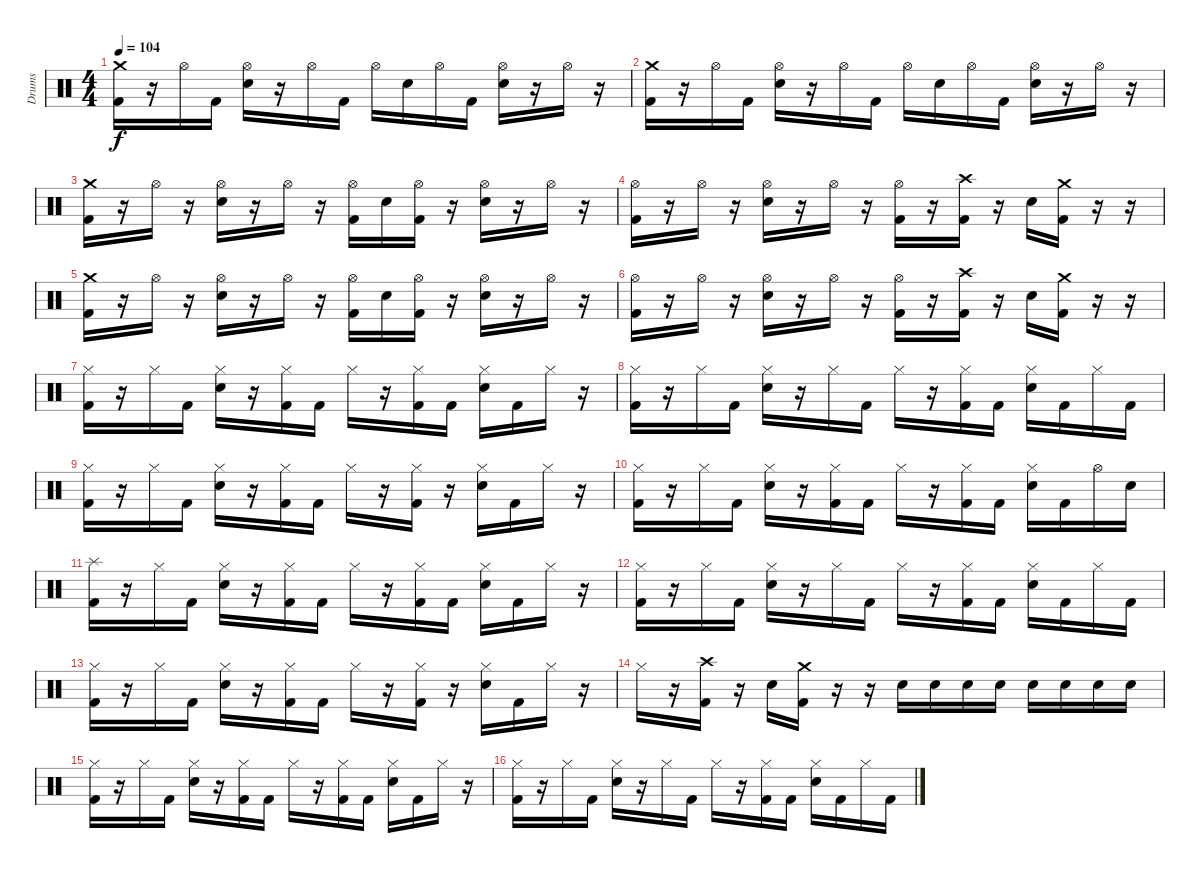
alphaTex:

\track ("Drums" "Drums") {instrument percussion}
\staff {score}
\articulation defaults
\ts (4 4)
\tempo 104
\clef neutral
\ks c
("Crash medium (hit)" "Kick (hit) 2").16{dy f} r.16 "Hi-Hat (open)".16 "Kick (hit) 2".16 ("Hi-Hat (open)" "Electric Snare (hit)").16 r.16 "Hi-Hat (open)".16 "Kick (hit) 2".16 "Hi-Hat (open)".16 "Electric Snare (hit)".16 "Hi-Hat (open)".16 "Kick (hit) 2".16 ("Hi-Hat (open)" "Electric Snare (hit)").16 r.16 "Hi-Hat (open)".16 r.16 |
("Crash medium (hit)" "Kick (hit) 2").16 r.16 "Hi-Hat (open)".16 "Kick (hit) 2".16 ("Hi-Hat (open)" "Electric Snare (hit)").16 r.16 "Hi-Hat (open)".16 "Kick (hit) 2".16 "Hi-Hat (open)".16 "Electric Snare (hit)".16 "Hi-Hat (open)".16 "Kick (hit) 2".16 ("Hi-Hat (open)" "Electric Snare (hit)").16 r.16 "Hi-Hat (open)".16 r.16 |
("Crash medium (hit)" "Kick (hit) 2").16 r.16 "Hi-Hat (open)".16 r.16 ("Hi-Hat (open)" "Electric Snare (hit)").16 r.16 "Hi-Hat (open)".16 r.16 ("Hi-Hat (open)" "Kick (hit) 2").16 "Electric Snare (hit)".16 ("Hi-Hat (open)" "Kick (hit) 2").16 r.16 ("Hi-Hat (open)" "Electric Snare (hit)").16 r.16 "Hi-Hat (open)".16 r.16 |
("Hi-Hat (open)" "Kick (hit) 2").16 r.16 "Hi-Hat (open)".16 r.16 ("Hi-Hat (open)" "Electric Snare (hit)").16 r.16 "Hi-Hat (open)".16 r.16 ("Hi-Hat (open)" "Kick (hit) 2").16 r.16 ("Crash high (hit)" "Kick (hit) 2").16 r.16 "Electric Snare (hit)".16 ("Crash medium (hit)" "Kick (hit) 2").16 r.16 r.16 |
("Crash medium (hit)" "Kick (hit) 2").16 r.16 "Hi-Hat (open)".16 r.16 ("Hi-Hat (open)" "Electric Snare (hit)").16 r.16 "Hi-Hat (open)".16 r.16 ("Hi-Hat (open)" "Kick (hit) 2").16 "Electric Snare (hit)".16 ("Hi-Hat (open)" "Kick (hit) 2").16 r.16 ("Hi-Hat (open)" "Electric Snare (hit)").16 r.16 "Hi-Hat (open)".16 r.16 |
("Hi-Hat (open)" "Kick (hit) 2").16 r.16 "Hi-Hat (open)".16 r.16 ("Hi-Hat (open)" "Electric Snare (hit)").16 r.16 "Hi-Hat (open)".16 r.16 ("Hi-Hat (open)" "Kick (hit) 2").16 r.16 ("Crash high (hit)" "Kick (hit) 2").16 r.16 "Electric Snare (hit)".16 ("Crash medium (hit)" "Kick (hit) 2").16 r.16 r.16 |
("Hi-Hat (closed)" "Kick (hit) 2").16 r.16 "Hi-Hat (closed)".16 "Kick (hit) 2".16 ("Hi-Hat (closed)" "Electric Snare (hit)").16 r.16 ("Hi-Hat (closed)" "Kick (hit) 2").16 "Kick (hit) 2".16 "Hi-Hat (closed)".16 r.16 ("Hi-Hat (closed)" "Kick (hit) 2").16 "Kick (hit) 2".16 ("Hi-Hat (closed)" "Electric Snare (hit)").16 "Kick (hit) 2".16 "Hi-Hat (closed)".16 r.16 |
("Hi-Hat (closed)" "Kick (hit) 2").16 r.16 "Hi-Hat (closed)".16 "Kick (hit) 2".16 ("Hi-Hat (closed)" "Electric Snare (hit)").16 r.16 "Hi-Hat (closed)".16 "Kick (hit) 2".16 "Hi-Hat (closed)".16 r.16 ("Hi-Hat (closed)" "Kick (hit) 2").16 "Kick (hit) 2".16 ("Hi-Hat (closed)" "Electric Snare (hit)").16 "Kick (hit) 2".16 "Hi-Hat (closed)".16 "Kick (hit) 2".16 |
("Hi-Hat (closed)" "Kick (hit) 2").16 r.16 "Hi-Hat (closed)".16 "Kick (hit) 2".16 ("Hi-Hat (closed)" "Electric Snare (hit)").16 r.16 ("Hi-Hat (closed)" "Kick (hit) 2").16 "Kick (hit) 2".16 "Hi-Hat (closed)".16 r.16 ("Hi-Hat (closed)" "Kick (hit) 2").16 r.16 ("Hi-Hat (closed)" "Electric Snare (hit)").16 "Kick (hit) 2".16 "Hi-Hat (closed)".16 r.16 |
("Hi-Hat (closed)" "Kick (hit) 2").16 r.16 "Hi-Hat (closed)".16 "Kick (hit) 2".16 ("Hi-Hat (closed)" "Electric Snare (hit)").16 r.16 ("Hi-Hat (closed)" "Kick (hit) 2").16 "Kick (hit) 2".16 "Hi-Hat (closed)".16 r.16 ("Hi-Hat (closed)" "Kick (hit) 2").16 "Kick (hit) 2".16 ("Hi-Hat (closed)" "Electric Snare (hit)").16 "Kick (hit) 2".16 "Hi-Hat (open)".16 "Electric Snare (hit)".16 |
("Splash (hit)" "Kick (hit) 2").16 r.16 "Hi-Hat (closed)".16 "Kick (hit) 2".16 ("Hi-Hat (closed)" "Electric Snare (hit)").16 r.16 ("Hi-Hat (closed)" "Kick (hit) 2").16 "Kick (hit) 2".16 "Hi-Hat (closed)".16 r.16 ("Hi-Hat (closed)" "Kick (hit) 2").16 "Kick (hit) 2".16 ("Hi-Hat (closed)" "Electric Snare (hit)").16 "Kick (hit) 2".16 "Hi-Hat (closed)".16 r.16 |
("Hi-Hat (closed)" "Kick (hit) 2").16 r.16 "Hi-Hat (closed)".16 "Kick (hit) 2".16 ("Hi-Hat (closed)" "Electric Snare (hit)").16 r.16 "Hi-Hat (closed)".16 "Kick (hit) 2".16 "Hi-Hat (closed)".16 r.16 ("Hi-Hat (closed)" "Kick (hit) 2").16 "Kick (hit) 2".16 ("Hi-Hat (closed)" "Electric Snare (hit)").16 "Kick (hit) 2".16 "Hi-Hat (closed)".16 "Kick (hit) 2".16 |
("Hi-Hat (closed)" "Kick (hit) 2").16 r.16 "Hi-Hat (closed)".16 "Kick (hit) 2".16 ("Hi-Hat (closed)" "Electric Snare (hit)").16 r.16 ("Hi-Hat (closed)" "Kick (hit) 2").16 "Kick (hit) 2".16 "Hi-Hat (closed)".16 r.16 ("Hi-Hat (closed)" "Kick (hit) 2").16 r.16 ("Hi-Hat (closed)" "Electric Snare (hit)").16 "Kick (hit) 2".16 "Hi-Hat (closed)".16 r.16 |
"Hi-Hat (closed)".16 r.16 ("Crash high (hit)" "Kick (hit) 2").16 r.16 "Electric Snare (hit)".16 ("Crash medium (hit)" "Kick (hit) 2").16 r.16 r.16 "Electric Snare (hit)".16 "Electric Snare (hit)".16 "Electric Snare (hit)".16 "Electric Snare (hit)".16 "Electric Snare (hit)".16 "Electric Snare (hit)".16 "Electric Snare (hit)".16 "Electric Snare (hit)".16 |
("Hi-Hat (closed)" "Kick (hit) 2").16 r.16 "Hi-Hat (closed)".16 "Kick (hit) 2".16 ("Hi-Hat (closed)" "Electric Snare (hit)").16 r.16 ("Hi-Hat (closed)" "Kick (hit) 2").16 "Kick (hit) 2".16 "Hi-Hat (closed)".16 r.16 ("Hi-Hat (closed)" "Kick (hit) 2").16 "Kick (hit) 2".16 ("Hi-Hat (closed)" "Electric Snare (hit)").16 "Kick (hit) 2".16 "Hi-Hat (closed)".16 r.16 |
("Hi-Hat (closed)" "Kick (hit) 2").16 r.16 "Hi-Hat (closed)".16 "Kick (hit) 2".16 ("Hi-Hat (closed)" "Electric Snare (hit)").16 r.16 "Hi-Hat (closed)".16 "Kick (hit) 2".16 "Hi-Hat (closed)".16 r.16 ("Hi-Hat (closed)" "Kick (hit) 2").16 "Kick (hit) 2".16 ("Hi-Hat (closed)" "Electric Snare (hit)").16 "Kick (hit) 2".16 "Hi-Hat (closed)".16 "Kick (hit) 2".16
